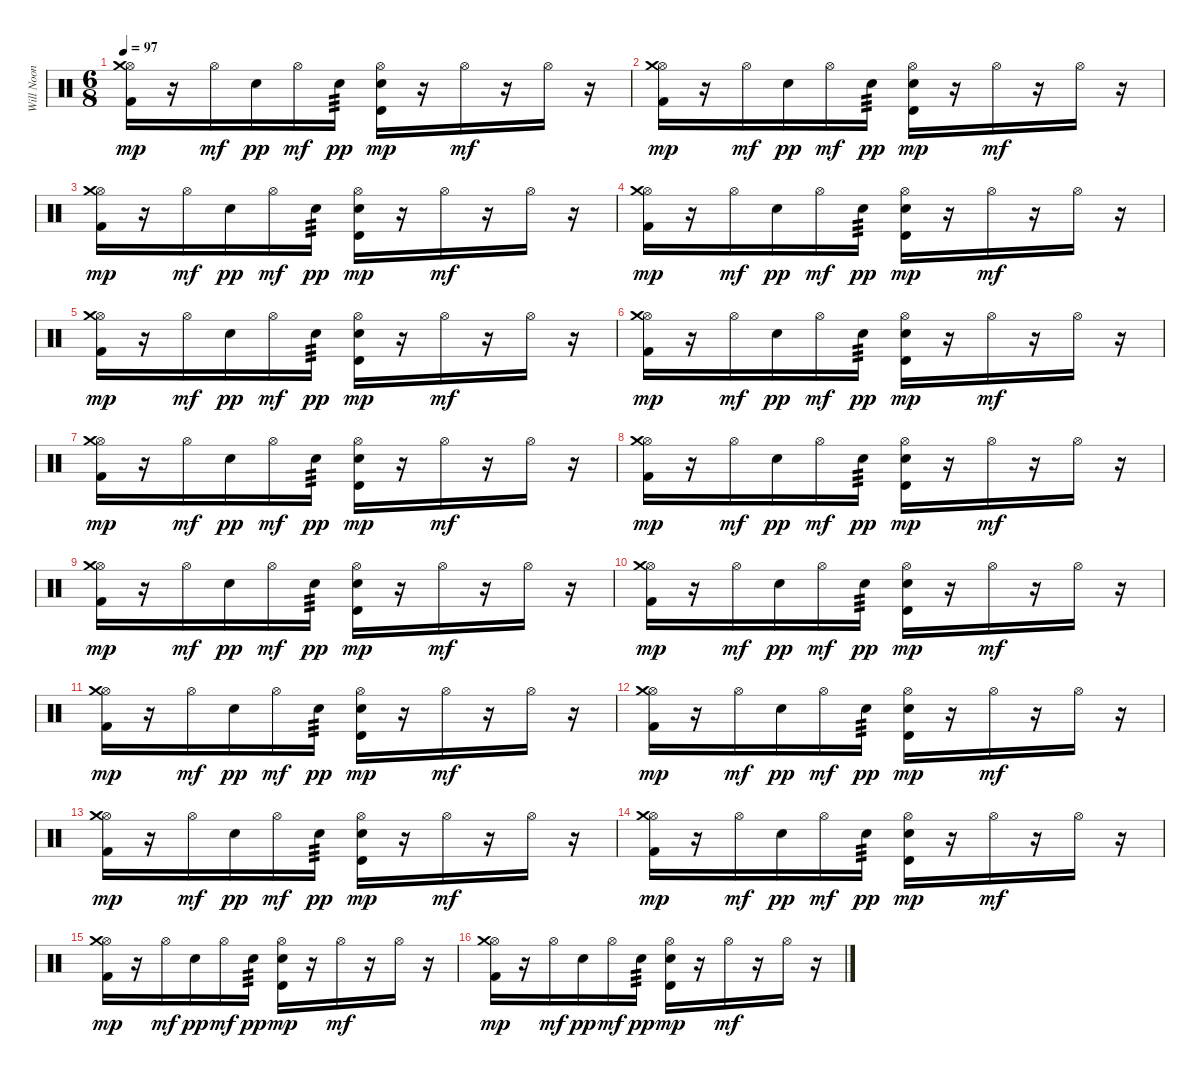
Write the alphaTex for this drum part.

\track ("Will Noon" "Will Noon") {instrument percussion}
\staff {score}
\articulation defaults
\ts (6 8)
\tempo 97
\clef neutral
\ks c
("Hi-Hat (open)" "Crash medium (hit)" "Kick (hit) 2").16{dy mp} r.16 "Hi-Hat (open)".16{dy mf} "Electric Snare (hit)".16{dy pp} "Hi-Hat (open)".16{dy mf} "Electric Snare (hit)".16{tp 3 dy pp} ("Hi-Hat (open)" "Timbale high (hit)" "Electric Snare (hit)").16{dy mp} r.16 "Hi-Hat (open)".16{dy mf} r.16 "Hi-Hat (open)".16 r.16 |
("Hi-Hat (open)" "Crash medium (hit)" "Kick (hit) 2").16{dy mp} r.16 "Hi-Hat (open)".16{dy mf} "Electric Snare (hit)".16{dy pp} "Hi-Hat (open)".16{dy mf} "Electric Snare (hit)".16{tp 3 dy pp} ("Hi-Hat (open)" "Timbale high (hit)" "Electric Snare (hit)").16{dy mp} r.16 "Hi-Hat (open)".16{dy mf} r.16 "Hi-Hat (open)".16 r.16 |
("Hi-Hat (open)" "Crash medium (hit)" "Kick (hit) 2").16{dy mp} r.16 "Hi-Hat (open)".16{dy mf} "Electric Snare (hit)".16{dy pp} "Hi-Hat (open)".16{dy mf} "Electric Snare (hit)".16{tp 3 dy pp} ("Hi-Hat (open)" "Timbale high (hit)" "Electric Snare (hit)").16{dy mp} r.16 "Hi-Hat (open)".16{dy mf} r.16 "Hi-Hat (open)".16 r.16 |
("Hi-Hat (open)" "Crash medium (hit)" "Kick (hit) 2").16{dy mp} r.16 "Hi-Hat (open)".16{dy mf} "Electric Snare (hit)".16{dy pp} "Hi-Hat (open)".16{dy mf} "Electric Snare (hit)".16{tp 3 dy pp} ("Hi-Hat (open)" "Timbale high (hit)" "Electric Snare (hit)").16{dy mp} r.16 "Hi-Hat (open)".16{dy mf} r.16 "Hi-Hat (open)".16 r.16 |
("Hi-Hat (open)" "Crash medium (hit)" "Kick (hit) 2").16{dy mp} r.16 "Hi-Hat (open)".16{dy mf} "Electric Snare (hit)".16{dy pp} "Hi-Hat (open)".16{dy mf} "Electric Snare (hit)".16{tp 3 dy pp} ("Hi-Hat (open)" "Timbale high (hit)" "Electric Snare (hit)").16{dy mp} r.16 "Hi-Hat (open)".16{dy mf} r.16 "Hi-Hat (open)".16 r.16 |
("Hi-Hat (open)" "Crash medium (hit)" "Kick (hit) 2").16{dy mp} r.16 "Hi-Hat (open)".16{dy mf} "Electric Snare (hit)".16{dy pp} "Hi-Hat (open)".16{dy mf} "Electric Snare (hit)".16{tp 3 dy pp} ("Hi-Hat (open)" "Timbale high (hit)" "Electric Snare (hit)").16{dy mp} r.16 "Hi-Hat (open)".16{dy mf} r.16 "Hi-Hat (open)".16 r.16 |
("Hi-Hat (open)" "Crash medium (hit)" "Kick (hit) 2").16{dy mp} r.16 "Hi-Hat (open)".16{dy mf} "Electric Snare (hit)".16{dy pp} "Hi-Hat (open)".16{dy mf} "Electric Snare (hit)".16{tp 3 dy pp} ("Hi-Hat (open)" "Timbale high (hit)" "Electric Snare (hit)").16{dy mp} r.16 "Hi-Hat (open)".16{dy mf} r.16 "Hi-Hat (open)".16 r.16 |
("Hi-Hat (open)" "Crash medium (hit)" "Kick (hit) 2").16{dy mp} r.16 "Hi-Hat (open)".16{dy mf} "Electric Snare (hit)".16{dy pp} "Hi-Hat (open)".16{dy mf} "Electric Snare (hit)".16{tp 3 dy pp} ("Hi-Hat (open)" "Timbale high (hit)" "Electric Snare (hit)").16{dy mp} r.16 "Hi-Hat (open)".16{dy mf} r.16 "Hi-Hat (open)".16 r.16 |
("Hi-Hat (open)" "Crash medium (hit)" "Kick (hit) 2").16{dy mp} r.16 "Hi-Hat (open)".16{dy mf} "Electric Snare (hit)".16{dy pp} "Hi-Hat (open)".16{dy mf} "Electric Snare (hit)".16{tp 3 dy pp} ("Hi-Hat (open)" "Timbale high (hit)" "Electric Snare (hit)").16{dy mp} r.16 "Hi-Hat (open)".16{dy mf} r.16 "Hi-Hat (open)".16 r.16 |
("Hi-Hat (open)" "Crash medium (hit)" "Kick (hit) 2").16{dy mp} r.16 "Hi-Hat (open)".16{dy mf} "Electric Snare (hit)".16{dy pp} "Hi-Hat (open)".16{dy mf} "Electric Snare (hit)".16{tp 3 dy pp} ("Hi-Hat (open)" "Timbale high (hit)" "Electric Snare (hit)").16{dy mp} r.16 "Hi-Hat (open)".16{dy mf} r.16 "Hi-Hat (open)".16 r.16 |
("Hi-Hat (open)" "Crash medium (hit)" "Kick (hit) 2").16{dy mp} r.16 "Hi-Hat (open)".16{dy mf} "Electric Snare (hit)".16{dy pp} "Hi-Hat (open)".16{dy mf} "Electric Snare (hit)".16{tp 3 dy pp} ("Hi-Hat (open)" "Timbale high (hit)" "Electric Snare (hit)").16{dy mp} r.16 "Hi-Hat (open)".16{dy mf} r.16 "Hi-Hat (open)".16 r.16 |
("Hi-Hat (open)" "Crash medium (hit)" "Kick (hit) 2").16{dy mp} r.16 "Hi-Hat (open)".16{dy mf} "Electric Snare (hit)".16{dy pp} "Hi-Hat (open)".16{dy mf} "Electric Snare (hit)".16{tp 3 dy pp} ("Hi-Hat (open)" "Timbale high (hit)" "Electric Snare (hit)").16{dy mp} r.16 "Hi-Hat (open)".16{dy mf} r.16 "Hi-Hat (open)".16 r.16 |
("Hi-Hat (open)" "Crash medium (hit)" "Kick (hit) 2").16{dy mp} r.16 "Hi-Hat (open)".16{dy mf} "Electric Snare (hit)".16{dy pp} "Hi-Hat (open)".16{dy mf} "Electric Snare (hit)".16{tp 3 dy pp} ("Hi-Hat (open)" "Timbale high (hit)" "Electric Snare (hit)").16{dy mp} r.16 "Hi-Hat (open)".16{dy mf} r.16 "Hi-Hat (open)".16 r.16 |
("Hi-Hat (open)" "Crash medium (hit)" "Kick (hit) 2").16{dy mp} r.16 "Hi-Hat (open)".16{dy mf} "Electric Snare (hit)".16{dy pp} "Hi-Hat (open)".16{dy mf} "Electric Snare (hit)".16{tp 3 dy pp} ("Hi-Hat (open)" "Timbale high (hit)" "Electric Snare (hit)").16{dy mp} r.16 "Hi-Hat (open)".16{dy mf} r.16 "Hi-Hat (open)".16 r.16 |
("Hi-Hat (open)" "Crash medium (hit)" "Kick (hit) 2").16{dy mp} r.16 "Hi-Hat (open)".16{dy mf} "Electric Snare (hit)".16{dy pp} "Hi-Hat (open)".16{dy mf} "Electric Snare (hit)".16{tp 3 dy pp} ("Hi-Hat (open)" "Timbale high (hit)" "Electric Snare (hit)").16{dy mp} r.16 "Hi-Hat (open)".16{dy mf} r.16 "Hi-Hat (open)".16 r.16 |
("Hi-Hat (open)" "Crash medium (hit)" "Kick (hit) 2").16{dy mp} r.16 "Hi-Hat (open)".16{dy mf} "Electric Snare (hit)".16{dy pp} "Hi-Hat (open)".16{dy mf} "Electric Snare (hit)".16{tp 3 dy pp} ("Hi-Hat (open)" "Timbale high (hit)" "Electric Snare (hit)").16{dy mp} r.16 "Hi-Hat (open)".16{dy mf} r.16 "Hi-Hat (open)".16 r.16
